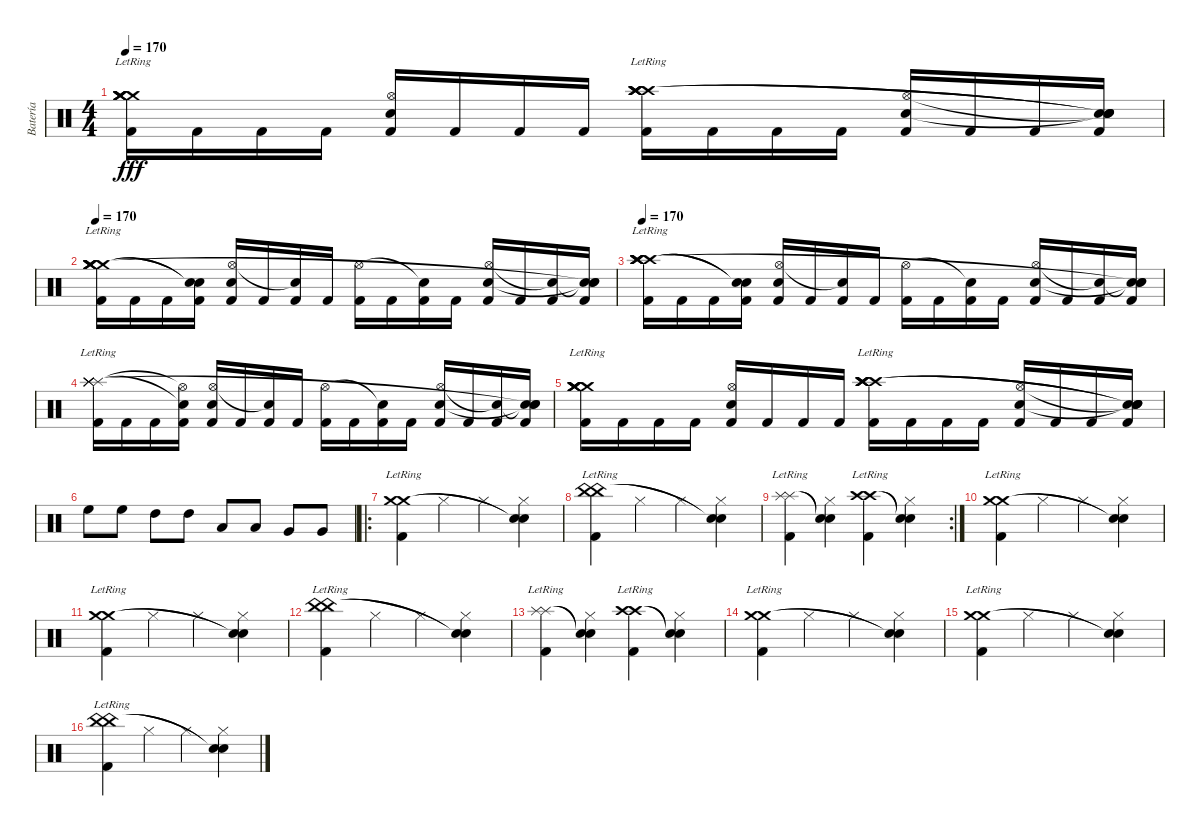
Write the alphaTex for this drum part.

\track ("Batería" "Batería") {instrument percussion}
\staff {score}
\articulation defaults
\ts (4 4)
\tempo 170
\clef neutral
\ks c
("Kick (hit) 2" "Crash medium (hit)"{lr} "Crash medium (hit)"{lr} "Crash medium (hit)"{lr} "Crash medium (hit)"{lr} "Crash medium (hit)"{lr}).16{dy fff} "Kick (hit) 2".16 "Kick (hit) 2".16 "Kick (hit) 2".16 ("Kick (hit) 2" "Hi-Hat (open)" "Electric Snare (hit)").16 "Kick (hit) 2".16 "Kick (hit) 2".16 "Kick (hit) 2".16 ("Kick (hit) 2"{lr} "Crash high (hit)"{lr} "Crash high (hit)"{lr} "Crash high (hit)"{lr} "Crash high (hit)"{lr} "Crash high (hit)"{lr}).16 "Kick (hit) 2".16 "Kick (hit) 2".16 "Kick (hit) 2".16 ("Kick (hit) 2" "Hi-Hat (open)" "Electric Snare (hit)").16 "Kick (hit) 2".16 "Kick (hit) 2".16 ("Kick (hit) 2" "Snare (hit)"{t} "Snare (hit)"{t} "Snare (hit)"{t} "Snare (hit)"{t}).16 |
\tempo 170
("Kick (hit) 2" "Crash medium (hit)"{lr} "Crash medium (hit)"{lr} "Crash medium (hit)"{lr} "Crash medium (hit)"{lr} "Crash medium (hit)"{lr}).16 "Kick (hit) 2".16 "Kick (hit) 2".16 ("Kick (hit) 2" "Snare (hit)"{t} "Snare (hit)"{t}).16 ("Kick (hit) 2" "Hi-Hat (open)" "Electric Snare (hit)").16 "Kick (hit) 2".16 ("Kick (hit) 2" "Snare (hit)"{t}).16 "Kick (hit) 2".16 ("Kick (hit) 2" "Hi-Hat (open)").16 "Kick (hit) 2".16 ("Kick (hit) 2" "Snare (hit)"{t}).16 "Kick (hit) 2".16 ("Kick (hit) 2" "Hi-Hat (open)" "Electric Snare (hit)").16 "Kick (hit) 2".16 ("Kick (hit) 2" "Snare (hit)"{t}).16 ("Kick (hit) 2" "Snare (hit)"{t} "Snare (hit)"{t} "Snare (hit)"{t}).16 |
\tempo 170
("Kick (hit) 2" "Crash high (hit)"{lr} "Crash high (hit)"{lr} "Crash high (hit)"{lr} "Crash high (hit)"{lr} "Crash high (hit)"{lr}).16 "Kick (hit) 2".16 "Kick (hit) 2".16 ("Kick (hit) 2" "Snare (hit)"{t} "Snare (hit)"{t}).16 ("Kick (hit) 2" "Hi-Hat (open)" "Electric Snare (hit)").16 "Kick (hit) 2".16 ("Kick (hit) 2" "Snare (hit)"{t}).16 "Kick (hit) 2".16 ("Kick (hit) 2" "Hi-Hat (open)").16 "Kick (hit) 2".16 ("Kick (hit) 2" "Snare (hit)"{t}).16 "Kick (hit) 2".16 ("Kick (hit) 2" "Hi-Hat (open)" "Electric Snare (hit)").16 "Kick (hit) 2".16 ("Kick (hit) 2" "Snare (hit)"{t}).16 ("Kick (hit) 2" "Snare (hit)"{t} "Snare (hit)"{t} "Snare (hit)"{t}).16 |
("Kick (hit) 2"{lr} "Splash (hit)"{lr} "Splash (hit)"{lr} "Splash (hit)"{lr} "Splash (hit)"{lr} "Splash (hit)"{lr}).16 "Kick (hit) 2".16 "Kick (hit) 2".16 ("Kick (hit) 2" "Hi-Hat (open)"{t} "Snare (hit)"{t}).16 ("Kick (hit) 2" "Hi-Hat (open)" "Electric Snare (hit)").16 "Kick (hit) 2".16 ("Kick (hit) 2" "Snare (hit)"{t}).16 "Kick (hit) 2".16 ("Kick (hit) 2" "Hi-Hat (open)").16 "Kick (hit) 2".16 ("Kick (hit) 2" "Snare (hit)"{t}).16 "Kick (hit) 2".16 ("Kick (hit) 2" "Hi-Hat (open)" "Electric Snare (hit)").16 "Kick (hit) 2".16 ("Kick (hit) 2" "Snare (hit)"{t}).16 ("Kick (hit) 2" "Snare (hit)"{t} "Snare (hit)"{t} "Snare (hit)"{t}).16 |
("Kick (hit) 2" "Crash medium (hit)"{lr} "Crash medium (hit)"{lr} "Crash medium (hit)"{lr} "Crash medium (hit)"{lr} "Crash medium (hit)"{lr}).16 "Kick (hit) 2".16 "Kick (hit) 2".16 "Kick (hit) 2".16 ("Kick (hit) 2" "Hi-Hat (open)" "Electric Snare (hit)").16 "Kick (hit) 2".16 "Kick (hit) 2".16 "Kick (hit) 2".16 ("Kick (hit) 2"{lr} "Crash high (hit)"{lr} "Crash high (hit)"{lr} "Crash high (hit)"{lr} "Crash high (hit)"{lr} "Crash high (hit)"{lr}).16 "Kick (hit) 2".16 "Kick (hit) 2".16 "Kick (hit) 2".16 ("Kick (hit) 2" "Hi-Hat (open)" "Electric Snare (hit)").16 "Kick (hit) 2".16 "Kick (hit) 2".16 ("Kick (hit) 2" "Snare (hit)"{t} "Snare (hit)"{t} "Snare (hit)"{t} "Snare (hit)"{t}).16 |
"High Floor Tom (hit)".8 "High Floor Tom (hit)".8 "High Tom (hit)".8 "High Tom (hit)".8 "Low Tom (hit)".8 "Low Tom (hit)".8 "Very Low Tom (hit)".8 "Very Low Tom (hit)".8 |
\ro
("Kick (hit) 2"{lr} "Crash medium (hit)"{lr} "Crash medium (hit)"{lr}).4 "Hi-Hat (closed)".4 "Hi-Hat (closed)".4 ("Hi-Hat (closed)" "Snare (hit)"{t} "Snare (hit)"{t}).4 |
("Kick (hit) 2"{lr} "China (hit)"{lr} "China (hit)"{lr}).4 "Hi-Hat (closed)".4 "Hi-Hat (closed)".4 ("Hi-Hat (closed)" "Snare (hit)"{t} "Snare (hit)"{t}).4 |
\rc 2
("Kick (hit) 2" "Splash (hit)"{lr} "Splash (hit)"{lr}).4 ("Hi-Hat (closed)" "Snare (hit)"{t} "Snare (hit)"{t}).4 ("Kick (hit) 2" "Crash high (hit)"{lr} "Crash high (hit)"{lr}).4 ("Hi-Hat (closed)" "Snare (hit)"{t} "Snare (hit)"{t}).4 |
("Kick (hit) 2"{lr} "Crash medium (hit)"{lr} "Crash medium (hit)"{lr}).4 "Hi-Hat (closed)".4 "Hi-Hat (closed)".4 ("Hi-Hat (closed)" "Snare (hit)"{t} "Snare (hit)"{t}).4 |
("Kick (hit) 2"{lr} "Crash medium (hit)"{lr} "Crash medium (hit)"{lr}).4 "Hi-Hat (closed)".4 "Hi-Hat (closed)".4 ("Hi-Hat (closed)" "Snare (hit)"{t} "Snare (hit)"{t}).4 |
("Kick (hit) 2"{lr} "China (hit)"{lr} "China (hit)"{lr}).4 "Hi-Hat (closed)".4 "Hi-Hat (closed)".4 ("Hi-Hat (closed)" "Snare (hit)"{t} "Snare (hit)"{t}).4 |
("Kick (hit) 2" "Splash (hit)"{lr} "Splash (hit)"{lr}).4 ("Hi-Hat (closed)" "Snare (hit)"{t} "Snare (hit)"{t}).4 ("Kick (hit) 2" "Crash high (hit)"{lr} "Crash high (hit)"{lr}).4 ("Hi-Hat (closed)" "Snare (hit)"{t} "Snare (hit)"{t}).4 |
("Kick (hit) 2"{lr} "Crash medium (hit)"{lr} "Crash medium (hit)"{lr}).4 "Hi-Hat (closed)".4 "Hi-Hat (closed)".4 ("Hi-Hat (closed)" "Snare (hit)"{t} "Snare (hit)"{t}).4 |
("Kick (hit) 2"{lr} "Crash medium (hit)"{lr} "Crash medium (hit)"{lr}).4 "Hi-Hat (closed)".4 "Hi-Hat (closed)".4 ("Hi-Hat (closed)" "Snare (hit)"{t} "Snare (hit)"{t}).4 |
("Kick (hit) 2"{lr} "China (hit)"{lr} "China (hit)"{lr}).4 "Hi-Hat (closed)".4 "Hi-Hat (closed)".4 ("Hi-Hat (closed)" "Snare (hit)"{t} "Snare (hit)"{t}).4
